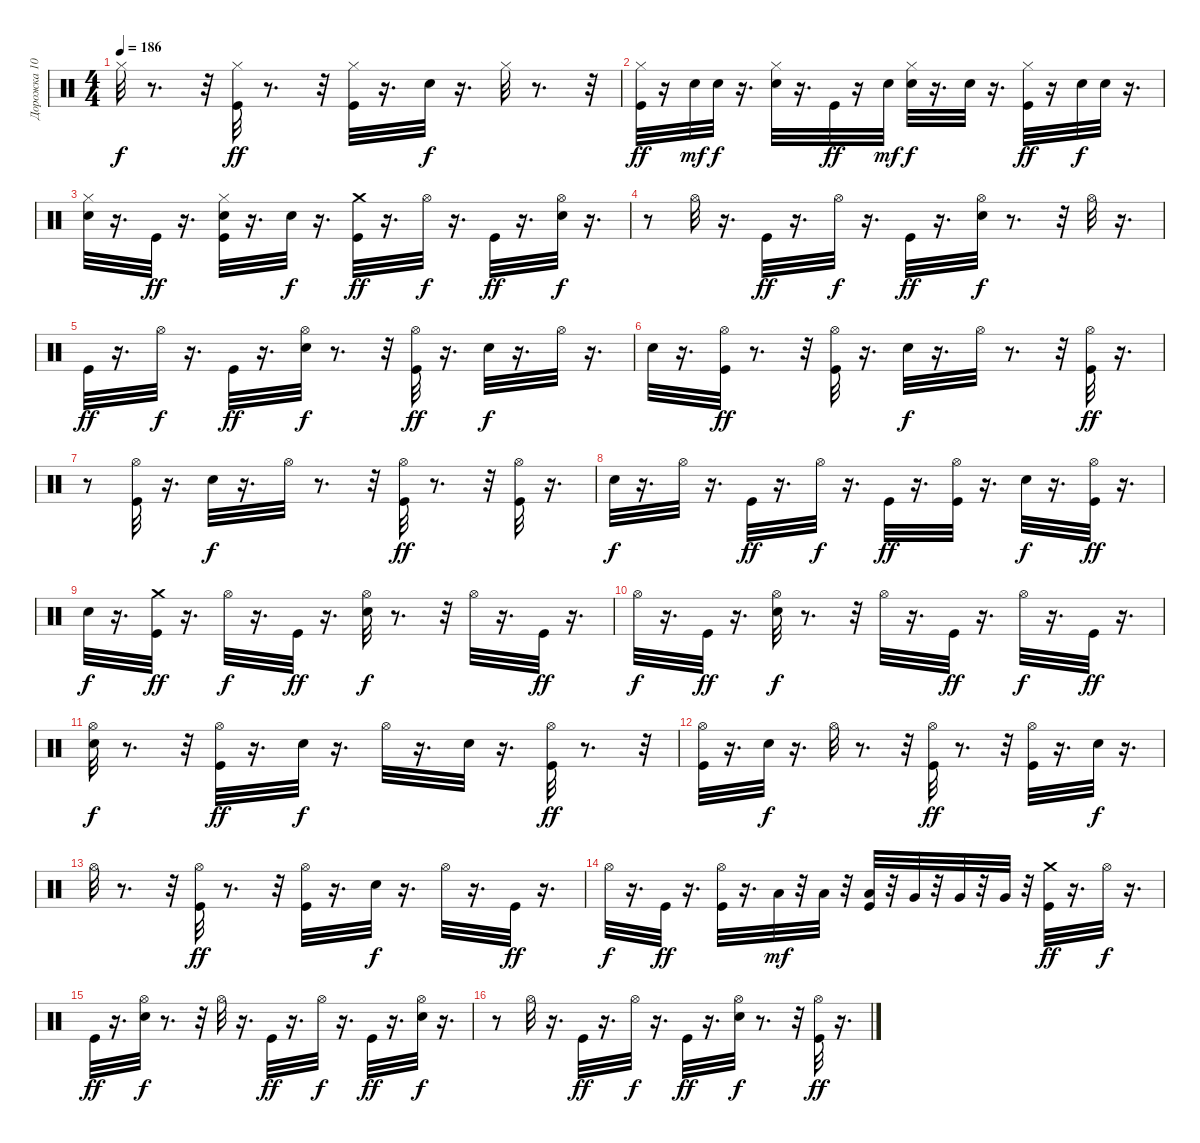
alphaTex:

\track ("Дорожка 10" "Дорожка 10") {instrument percussion}
\staff {score}
\articulation defaults
\ts (4 4)
\tempo 186
\clef neutral
\ks c "Hi-Hat (closed)".32{dy f}
r.8{d} r.32 ("Kick (hit)" "Hi-Hat (closed)").32{dy ff} r.8{d} r.32 ("Kick (hit)" "Hi-Hat (closed)").32 r.16{d} "Electric Snare (hit)".32{dy f} r.16{d} "Hi-Hat (closed)".32 r.8{d} r.32 |
("Kick (hit)" "Hi-Hat (closed)").32{dy ff} r.16 "Electric Snare (hit)".32{dy mf} "Electric Snare (hit)".32{dy f} r.16{d} ("Electric Snare (hit)" "Hi-Hat (closed)").32 r.16{d} "Kick (hit)".32{dy ff} r.16 "Electric Snare (hit)".32{dy mf} ("Hi-Hat (closed)" "Electric Snare (hit)").32{dy f} r.16{d} "Electric Snare (hit)".32 r.16{d} ("Kick (hit)" "Hi-Hat (closed)").32{dy ff} r.16 "Electric Snare (hit)".32{dy f} "Electric Snare (hit)".32 r.16{d} |
("Electric Snare (hit)" "Hi-Hat (closed)").32 r.16{d} "Kick (hit)".32{dy ff} r.16{d} ("Kick (hit)" "Hi-Hat (closed)" "Electric Snare (hit)").32 r.16{d} "Electric Snare (hit)".32{dy f} r.16{d} ("Kick (hit)" "Crash medium (hit)").32{dy ff} r.16{d} "Hi-Hat (open)".32{dy f} r.16{d} "Kick (hit)".32{dy ff} r.16{d} ("Hi-Hat (open)" "Electric Snare (hit)").32{dy f} r.16{d} |
r.8 "Hi-Hat (open)".32 r.16{d} "Kick (hit)".32{dy ff} r.16{d} "Hi-Hat (open)".32{dy f} r.16{d} "Kick (hit)".32{dy ff} r.16{d} ("Hi-Hat (open)" "Electric Snare (hit)").32{dy f} r.8{d} r.32 "Hi-Hat (open)".32 r.16{d} |
"Kick (hit)".32{dy ff} r.16{d} "Hi-Hat (open)".32{dy f} r.16{d} "Kick (hit)".32{dy ff} r.16{d} ("Hi-Hat (open)" "Electric Snare (hit)").32{dy f} r.8{d} r.32 ("Kick (hit)" "Hi-Hat (open)").32{dy ff} r.16{d} "Electric Snare (hit)".32{dy f} r.16{d} "Hi-Hat (open)".32 r.16{d} |
"Electric Snare (hit)".32 r.16{d} ("Kick (hit)" "Hi-Hat (open)").32{dy ff} r.8{d} r.32 ("Kick (hit)" "Hi-Hat (open)").32 r.16{d} "Electric Snare (hit)".32{dy f} r.16{d} "Hi-Hat (open)".32 r.8{d} r.32 ("Kick (hit)" "Hi-Hat (open)").32{dy ff} r.16{d} |
r.8 ("Kick (hit)" "Hi-Hat (open)").32 r.16{d} "Electric Snare (hit)".32{dy f} r.16{d} "Hi-Hat (open)".32 r.8{d} r.32 ("Kick (hit)" "Hi-Hat (open)").32{dy ff} r.8{d} r.32 ("Kick (hit)" "Hi-Hat (open)").32 r.16{d} |
"Electric Snare (hit)".32{dy f} r.16{d} "Hi-Hat (open)".32 r.16{d} "Kick (hit)".32{dy ff} r.16{d} "Hi-Hat (open)".32{dy f} r.16{d} "Kick (hit)".32{dy ff} r.16{d} ("Kick (hit)" "Hi-Hat (open)").32 r.16{d} "Electric Snare (hit)".32{dy f} r.16{d} ("Kick (hit)" "Hi-Hat (open)").32{dy ff} r.16{d} |
"Electric Snare (hit)".32{dy f} r.16{d} ("Kick (hit)" "Crash medium (hit)").32{dy ff} r.16{d} "Hi-Hat (open)".32{dy f} r.16{d} "Kick (hit)".32{dy ff} r.16{d} ("Hi-Hat (open)" "Electric Snare (hit)").32{dy f} r.8{d} r.32 "Hi-Hat (open)".32 r.16{d} "Kick (hit)".32{dy ff} r.16{d} |
"Hi-Hat (open)".32{dy f} r.16{d} "Kick (hit)".32{dy ff} r.16{d} ("Electric Snare (hit)" "Hi-Hat (open)").32{dy f} r.8{d} r.32 "Hi-Hat (open)".32 r.16{d} "Kick (hit)".32{dy ff} r.16{d} "Hi-Hat (open)".32{dy f} r.16{d} "Kick (hit)".32{dy ff} r.16{d} |
("Electric Snare (hit)" "Hi-Hat (open)").32{dy f} r.8{d} r.32 ("Kick (hit)" "Hi-Hat (open)").32{dy ff} r.16{d} "Electric Snare (hit)".32{dy f} r.16{d} "Hi-Hat (open)".32 r.16{d} "Electric Snare (hit)".32 r.16{d} ("Kick (hit)" "Hi-Hat (open)").32{dy ff} r.8{d} r.32 |
("Kick (hit)" "Hi-Hat (open)").32 r.16{d} "Electric Snare (hit)".32{dy f} r.16{d} "Hi-Hat (open)".32 r.8{d} r.32 ("Kick (hit)" "Hi-Hat (open)").32{dy ff} r.8{d} r.32 ("Kick (hit)" "Hi-Hat (open)").32 r.16{d} "Electric Snare (hit)".32{dy f} r.16{d} |
"Hi-Hat (open)".32 r.8{d} r.32 ("Kick (hit)" "Hi-Hat (open)").32{dy ff} r.8{d} r.32 ("Kick (hit)" "Hi-Hat (open)").32 r.16{d} "Electric Snare (hit)".32{dy f} r.16{d} "Hi-Hat (open)".32 r.16{d} "Kick (hit)".32{dy ff} r.16{d} |
"Hi-Hat (open)".32{dy f} r.16{d} "Kick (hit)".32{dy ff} r.16{d} ("Kick (hit)" "Hi-Hat (open)").32 r.16{d} "Low Tom (hit)".32{dy mf} r.32 "Low Tom (hit)".32 r.32 ("Kick (hit)" "Low Tom (hit)").32 r.32 "Very Low Tom (hit)".32 r.32 "Very Low Tom (hit)".32 r.32 "Very Low Tom (hit)".32 r.32 ("Kick (hit)" "Crash medium (hit)").32{dy ff} r.16{d} "Hi-Hat (open)".32{dy f} r.16{d} |
"Kick (hit)".32{dy ff} r.16{d} ("Electric Snare (hit)" "Hi-Hat (open)").32{dy f} r.8{d} r.32 "Hi-Hat (open)".32 r.16{d} "Kick (hit)".32{dy ff} r.16{d} "Hi-Hat (open)".32{dy f} r.16{d} "Kick (hit)".32{dy ff} r.16{d} ("Hi-Hat (open)" "Electric Snare (hit)").32{dy f} r.16{d} |
r.8 "Hi-Hat (open)".32 r.16{d} "Kick (hit)".32{dy ff} r.16{d} "Hi-Hat (open)".32{dy f} r.16{d} "Kick (hit)".32{dy ff} r.16{d} ("Hi-Hat (open)" "Electric Snare (hit)").32{dy f} r.8{d} r.32 ("Kick (hit)" "Hi-Hat (open)").32{dy ff} r.16{d}
